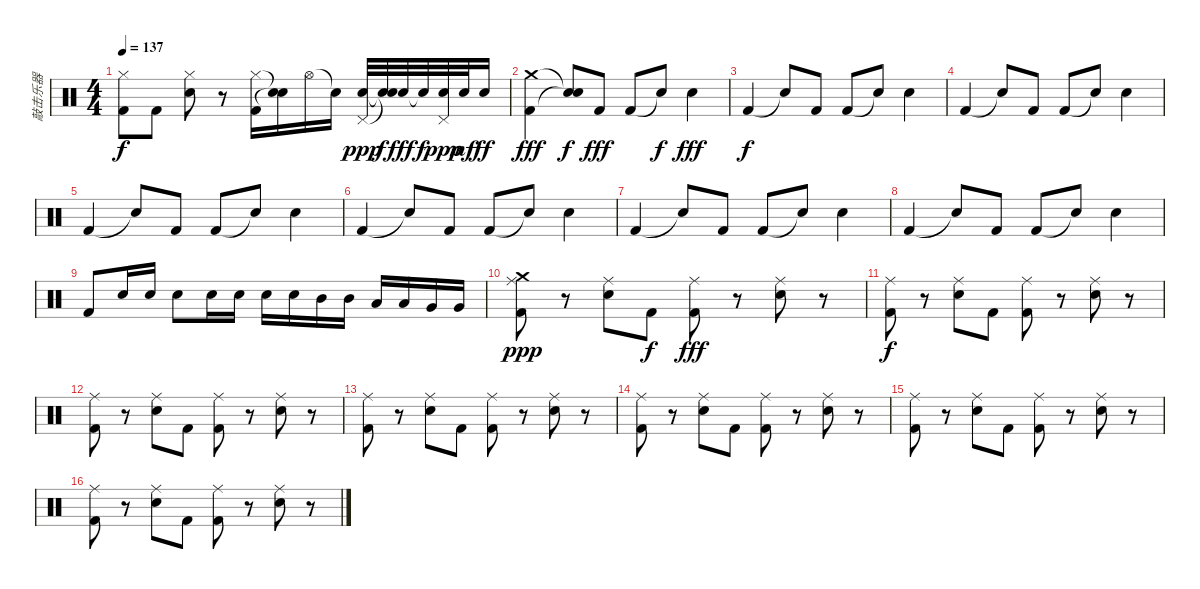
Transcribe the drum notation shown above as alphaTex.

\track ("敲击乐器" "敲击乐器") {instrument percussion}
\staff {score}
\articulation defaults
\ts (4 4)
\tempo 137
\clef neutral
\ks c
("Kick (hit) 2" "Hi-Hat (closed)").8{dy f} "Kick (hit) 2".8 ("Snare (hit) 2" "Hi-Hat (closed)").8 r.8 ("Kick (hit) 2" "Hi-Hat (closed)").16 ("Snare (hit)"{t} "Snare (hit)"{t}).16 "Hi-Hat (open)".16 "Snare (hit)"{t}.16 ("Electric Snare (hit)" "Pedal Hi-Hat (hit)").32{dy ppp} ("Snare (hit)"{t} "Snare (hit)"{t}).32{dy f} "Electric Snare (hit)".32{dy fff} "Snare (hit)"{t}.32{dy f} ("Electric Snare (hit)" "Pedal Hi-Hat (hit)").32{dy ppp} "Electric Snare (hit)".32{dy mf} "Electric Snare (hit)".16{dy ff} |
("Kick (hit) 2" "Crash medium (hit)").4{dy fff} ("Snare (hit)"{t} "Snare (hit)"{t}).8{dy f} "Kick (hit) 2".8{dy fff} "Kick (hit) 2".8 "Snare (hit)"{t}.8{dy f} "Snare (hit) 2".4{dy fff} |
"Kick (hit) 2".4{dy f} "Snare (hit)"{t}.8 "Kick (hit) 2".8 "Kick (hit) 2".8 "Snare (hit)"{t}.8 "Snare (hit) 2".4 |
"Kick (hit) 2".4 "Snare (hit)"{t}.8 "Kick (hit) 2".8 "Kick (hit) 2".8 "Snare (hit)"{t}.8 "Snare (hit) 2".4 |
"Kick (hit) 2".4 "Snare (hit)"{t}.8 "Kick (hit) 2".8 "Kick (hit) 2".8 "Snare (hit)"{t}.8 "Snare (hit) 2".4 |
"Kick (hit) 2".4 "Snare (hit)"{t}.8 "Kick (hit) 2".8 "Kick (hit) 2".8 "Snare (hit)"{t}.8 "Snare (hit) 2".4 |
"Kick (hit) 2".4 "Snare (hit)"{t}.8 "Kick (hit) 2".8 "Kick (hit) 2".8 "Snare (hit)"{t}.8 "Snare (hit) 2".4 |
"Kick (hit) 2".4 "Snare (hit)"{t}.8 "Kick (hit) 2".8 "Kick (hit) 2".8 "Snare (hit)"{t}.8 "Snare (hit) 2".4 |
"Kick (hit) 2".8 "Snare (hit) 2".16 "Snare (hit) 2".16 "Snare (hit) 2".8 "Snare (hit) 2".16 "Snare (hit) 2".16 "Snare (hit) 2".16 "Snare (hit) 2".16 "Mid Tom (hit)".16 "Mid Tom (hit)".16 "Low Tom (hit)".16 "Low Tom (hit)".16 "Very Low Tom (hit)".16 "Very Low Tom (hit)".16 |
("Crash medium (hit)" "Kick (hit) 2" "Ride (middle)").8{dy ppp} r.8 ("Snare (hit) 2" "Ride (middle)").8 "Kick (hit) 2".8{dy f} ("Kick (hit) 2" "Ride (middle)").8{dy fff} r.8 ("Snare (hit) 2" "Ride (middle)").8 r.8 |
("Kick (hit) 2" "Ride (middle)").8{dy f} r.8 ("Snare (hit) 2" "Ride (middle)").8 "Kick (hit) 2".8 ("Kick (hit) 2" "Ride (middle)").8 r.8 ("Snare (hit) 2" "Ride (middle)").8 r.8 |
("Kick (hit) 2" "Ride (middle)").8 r.8 ("Snare (hit) 2" "Ride (middle)").8 "Kick (hit) 2".8 ("Kick (hit) 2" "Ride (middle)").8 r.8 ("Snare (hit) 2" "Ride (middle)").8 r.8 |
("Kick (hit) 2" "Ride (middle)").8 r.8 ("Snare (hit) 2" "Ride (middle)").8 "Kick (hit) 2".8 ("Kick (hit) 2" "Ride (middle)").8 r.8 ("Snare (hit) 2" "Ride (middle)").8 r.8 |
("Kick (hit) 2" "Ride (middle)").8 r.8 ("Snare (hit) 2" "Ride (middle)").8 "Kick (hit) 2".8 ("Kick (hit) 2" "Ride (middle)").8 r.8 ("Snare (hit) 2" "Ride (middle)").8 r.8 |
("Kick (hit) 2" "Ride (middle)").8 r.8 ("Snare (hit) 2" "Ride (middle)").8 "Kick (hit) 2".8 ("Kick (hit) 2" "Ride (middle)").8 r.8 ("Snare (hit) 2" "Ride (middle)").8 r.8 |
("Kick (hit) 2" "Ride (middle)").8 r.8 ("Snare (hit) 2" "Ride (middle)").8 "Kick (hit) 2".8 ("Kick (hit) 2" "Ride (middle)").8 r.8 ("Snare (hit) 2" "Ride (middle)").8 r.8
